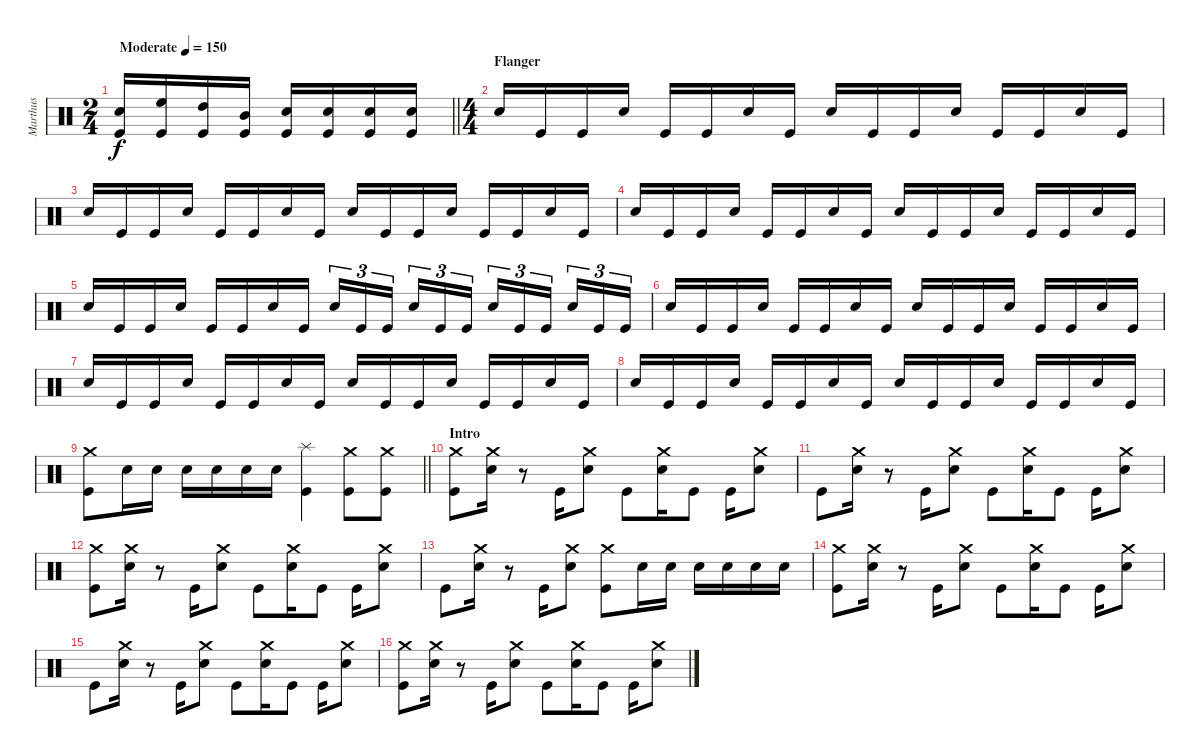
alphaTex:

\track ("Marthus" "Marthus") {instrument percussion}
\staff {score}
\articulation defaults
\ts (2 4)
\tempo (150 "Moderate")
\clef neutral
\barLineRight lightlight
\ks c
("Snare (hit) 2" "Kick (hit)").16{dy f} ("High Floor Tom (hit)" "Kick (hit)").16 ("High Tom (hit)" "Kick (hit)").16 ("Mid Tom (hit)" "Kick (hit)").16 ("Snare (hit) 2" "Kick (hit)").16 ("Snare (hit) 2" "Kick (hit)").16 ("Snare (hit) 2" "Kick (hit)").16 ("Snare (hit) 2" "Kick (hit)").16 |
\ts (4 4)
\section ("" "Flanger")
"Snare (hit) 2".16 "Kick (hit)".16 "Kick (hit)".16 "Snare (hit) 2".16 "Kick (hit)".16 "Kick (hit)".16 "Snare (hit) 2".16 "Kick (hit)".16 "Snare (hit) 2".16 "Kick (hit)".16 "Kick (hit)".16 "Snare (hit) 2".16 "Kick (hit)".16 "Kick (hit)".16 "Snare (hit) 2".16 "Kick (hit)".16 |
"Snare (hit) 2".16 "Kick (hit)".16 "Kick (hit)".16 "Snare (hit) 2".16 "Kick (hit)".16 "Kick (hit)".16 "Snare (hit) 2".16 "Kick (hit)".16 "Snare (hit) 2".16 "Kick (hit)".16 "Kick (hit)".16 "Snare (hit) 2".16 "Kick (hit)".16 "Kick (hit)".16 "Snare (hit) 2".16 "Kick (hit)".16 |
"Snare (hit) 2".16 "Kick (hit)".16 "Kick (hit)".16 "Snare (hit) 2".16 "Kick (hit)".16 "Kick (hit)".16 "Snare (hit) 2".16 "Kick (hit)".16 "Snare (hit) 2".16 "Kick (hit)".16 "Kick (hit)".16 "Snare (hit) 2".16 "Kick (hit)".16 "Kick (hit)".16 "Snare (hit) 2".16 "Kick (hit)".16 |
"Snare (hit) 2".16 "Kick (hit)".16 "Kick (hit)".16 "Snare (hit) 2".16 "Kick (hit)".16 "Kick (hit)".16 "Snare (hit) 2".16 "Kick (hit)".16 "Snare (hit) 2".16{tu (3 2)} "Kick (hit)".16{tu (3 2)} "Kick (hit)".16{tu (3 2) beam splitsecondary} "Snare (hit) 2".16{tu (3 2)} "Kick (hit)".16{tu (3 2)} "Kick (hit)".16{tu (3 2)} "Snare (hit) 2".16{tu (3 2)} "Kick (hit)".16{tu (3 2)} "Kick (hit)".16{tu (3 2) beam splitsecondary} "Snare (hit) 2".16{tu (3 2)} "Kick (hit)".16{tu (3 2)} "Kick (hit)".16{tu (3 2)} |
"Snare (hit) 2".16 "Kick (hit)".16 "Kick (hit)".16 "Snare (hit) 2".16 "Kick (hit)".16 "Kick (hit)".16 "Snare (hit) 2".16 "Kick (hit)".16 "Snare (hit) 2".16 "Kick (hit)".16 "Kick (hit)".16 "Snare (hit) 2".16 "Kick (hit)".16 "Kick (hit)".16 "Snare (hit) 2".16 "Kick (hit)".16 |
"Snare (hit) 2".16 "Kick (hit)".16 "Kick (hit)".16 "Snare (hit) 2".16 "Kick (hit)".16 "Kick (hit)".16 "Snare (hit) 2".16 "Kick (hit)".16 "Snare (hit) 2".16 "Kick (hit)".16 "Kick (hit)".16 "Snare (hit) 2".16 "Kick (hit)".16 "Kick (hit)".16 "Snare (hit) 2".16 "Kick (hit)".16 |
"Snare (hit) 2".16 "Kick (hit)".16 "Kick (hit)".16 "Snare (hit) 2".16 "Kick (hit)".16 "Kick (hit)".16 "Snare (hit) 2".16 "Kick (hit)".16 "Snare (hit) 2".16 "Kick (hit)".16 "Kick (hit)".16 "Snare (hit) 2".16 "Kick (hit)".16 "Kick (hit)".16 "Snare (hit) 2".16 "Kick (hit)".16 |
\barLineRight lightlight
("Crash medium (hit)" "Kick (hit)").8 "Snare (hit) 2".16 "Snare (hit) 2".16 "Snare (hit) 2".16 "Snare (hit) 2".16 "Snare (hit) 2".16 "Snare (hit) 2".16 ("Splash (hit)" "Kick (hit)").4 ("Crash medium (hit)" "Kick (hit)").8 ("Crash medium (hit)" "Kick (hit)").8 |
\section ("" "Intro")
("Crash medium (hit)" "Kick (hit)").8 ("Crash medium (hit)" "Snare (hit) 2").16 r.8 "Kick (hit)".16 ("Crash medium (hit)" "Snare (hit) 2").8 "Kick (hit)".8 ("Crash medium (hit)" "Snare (hit) 2").16 "Kick (hit)".8 "Kick (hit)".16 ("Crash medium (hit)" "Snare (hit) 2").8 |
"Kick (hit)".8 ("Crash medium (hit)" "Snare (hit) 2").16 r.8 "Kick (hit)".16 ("Crash medium (hit)" "Snare (hit) 2").8 "Kick (hit)".8 ("Crash medium (hit)" "Snare (hit) 2").16 "Kick (hit)".8 "Kick (hit)".16 ("Crash medium (hit)" "Snare (hit) 2").8 |
("Crash medium (hit)" "Kick (hit)").8 ("Crash medium (hit)" "Snare (hit) 2").16 r.8 "Kick (hit)".16 ("Crash medium (hit)" "Snare (hit) 2").8 "Kick (hit)".8 ("Crash medium (hit)" "Snare (hit) 2").16 "Kick (hit)".8 "Kick (hit)".16 ("Crash medium (hit)" "Snare (hit) 2").8 |
"Kick (hit)".8 ("Crash medium (hit)" "Snare (hit) 2").16 r.8 "Kick (hit)".16 ("Crash medium (hit)" "Snare (hit) 2").8 ("Crash medium (hit)" "Kick (hit)").8 "Snare (hit) 2".16 "Snare (hit) 2".16 "Snare (hit) 2".16 "Snare (hit) 2".16 "Snare (hit) 2".16 "Snare (hit) 2".16 |
("Crash medium (hit)" "Kick (hit)").8 ("Crash medium (hit)" "Snare (hit) 2").16 r.8 "Kick (hit)".16 ("Crash medium (hit)" "Snare (hit) 2").8 "Kick (hit)".8 ("Crash medium (hit)" "Snare (hit) 2").16 "Kick (hit)".8 "Kick (hit)".16 ("Crash medium (hit)" "Snare (hit) 2").8 |
"Kick (hit)".8 ("Crash medium (hit)" "Snare (hit) 2").16 r.8 "Kick (hit)".16 ("Crash medium (hit)" "Snare (hit) 2").8 "Kick (hit)".8 ("Crash medium (hit)" "Snare (hit) 2").16 "Kick (hit)".8 "Kick (hit)".16 ("Crash medium (hit)" "Snare (hit) 2").8 |
("Crash medium (hit)" "Kick (hit)").8 ("Crash medium (hit)" "Snare (hit) 2").16 r.8 "Kick (hit)".16 ("Crash medium (hit)" "Snare (hit) 2").8 "Kick (hit)".8 ("Crash medium (hit)" "Snare (hit) 2").16 "Kick (hit)".8 "Kick (hit)".16 ("Crash medium (hit)" "Snare (hit) 2").8
